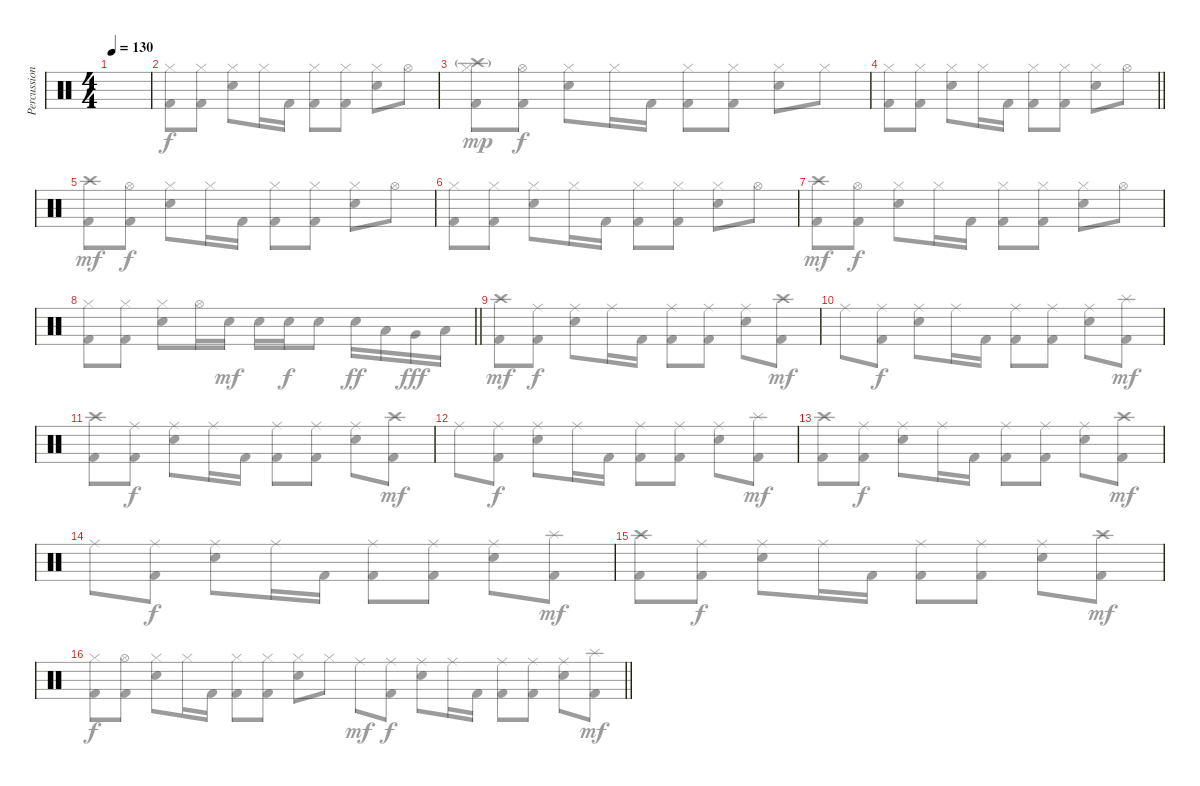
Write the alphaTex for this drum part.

\track ("Percussion" "Percussion") {instrument percussion}
\staff {score}
\articulation defaults
\voice
\ts (4 4)
\tempo 130
\clef neutral
\ks c
|
|
|
\barLineRight lightlight
|
|
|
|
\barLineRight lightlight
|
|
|
|
|
|
|
|
\barLineRight lightlight
\voice
\clef neutral
\ks c
("Hi-Hat (closed)" "Kick (hit) 2").8{dy f} ("Hi-Hat (open)" "Kick (hit) 2").8 ("Hi-Hat (closed)" "Electric Snare (hit)").8 "Hi-Hat (closed)".16 "Kick (hit) 2".16 ("Hi-Hat (closed)" "Kick (hit) 2").8 ("Hi-Hat (closed)" "Kick (hit) 2").8 ("Hi-Hat (closed)" "Electric Snare (hit)").8 "Hi-Hat (closed)".8 |
("Hi-Hat (closed)" "Kick (hit) 2").8 ("Hi-Hat (closed)" "Kick (hit) 2").8 ("Hi-Hat (closed)" "Electric Snare (hit)").8 "Hi-Hat (closed)".16 "Kick (hit) 2".16 ("Hi-Hat (closed)" "Kick (hit) 2").8 ("Hi-Hat (closed)" "Kick (hit) 2").8 ("Hi-Hat (closed)" "Electric Snare (hit)").8 "Hi-Hat (open)".8 |
("Crash high (hit)"{g} "Hi-Hat (closed)" "Kick (hit) 2").8{dy mp} ("Hi-Hat (open)" "Kick (hit) 2").8{dy f} ("Hi-Hat (closed)" "Electric Snare (hit)").8 "Hi-Hat (closed)".16 "Kick (hit) 2".16 ("Hi-Hat (closed)" "Kick (hit) 2").8 ("Hi-Hat (closed)" "Kick (hit) 2").8 ("Hi-Hat (closed)" "Electric Snare (hit)").8 "Hi-Hat (closed)".8 |
\barLineRight lightlight
("Hi-Hat (closed)" "Kick (hit) 2").8 ("Hi-Hat (closed)" "Kick (hit) 2").8 ("Hi-Hat (closed)" "Electric Snare (hit)").8 "Hi-Hat (closed)".16 "Kick (hit) 2".16 ("Hi-Hat (closed)" "Kick (hit) 2").8 ("Hi-Hat (closed)" "Kick (hit) 2").8 ("Hi-Hat (closed)" "Electric Snare (hit)").8 "Hi-Hat (open)".8 |
("Crash high (hit)" "Kick (hit) 2").8{dy mf} ("Hi-Hat (open)" "Kick (hit) 2").8{dy f} ("Hi-Hat (closed)" "Electric Snare (hit)").8 "Hi-Hat (closed)".16 "Kick (hit) 2".16 ("Hi-Hat (closed)" "Kick (hit) 2").8 ("Hi-Hat (closed)" "Kick (hit) 2").8 ("Hi-Hat (closed)" "Electric Snare (hit)").8 "Hi-Hat (open)".8 |
("Hi-Hat (closed)" "Kick (hit) 2").8 ("Hi-Hat (closed)" "Kick (hit) 2").8 ("Hi-Hat (closed)" "Electric Snare (hit)").8 "Hi-Hat (closed)".16 "Kick (hit) 2".16 ("Hi-Hat (closed)" "Kick (hit) 2").8 ("Hi-Hat (closed)" "Kick (hit) 2").8 ("Hi-Hat (closed)" "Electric Snare (hit)").8 "Hi-Hat (open)".8 |
("Crash high (hit)" "Kick (hit) 2").8{dy mf} ("Hi-Hat (open)" "Kick (hit) 2").8{dy f} ("Hi-Hat (closed)" "Electric Snare (hit)").8 "Hi-Hat (closed)".16 "Kick (hit) 2".16 ("Hi-Hat (closed)" "Kick (hit) 2").8 ("Hi-Hat (closed)" "Kick (hit) 2").8 ("Hi-Hat (closed)" "Electric Snare (hit)").8 "Hi-Hat (open)".8 |
\barLineRight lightlight
("Hi-Hat (closed)" "Kick (hit) 2").8 ("Hi-Hat (closed)" "Kick (hit) 2").8 ("Hi-Hat (closed)" "Electric Snare (hit)").8 "Hi-Hat (open)".16 "Electric Snare (hit)".16{dy mf} "Electric Snare (hit)".16 "Electric Snare (hit)".16{dy f} "Electric Snare (hit)".8 "Electric Snare (hit)".16{dy ff} "Low Tom (hit)".16 "Very Low Tom (hit)".16{dy fff} "Low Floor Tom (hit)".16 |
("Crash high (hit)" "Kick (hit) 2").8{dy mf} ("Ride (middle)" "Kick (hit) 2").8{dy f} ("Ride (middle)" "Electric Snare (hit)").8 "Ride (middle)".16 "Kick (hit) 2".16 ("Ride (middle)" "Kick (hit) 2").8 ("Ride (middle)" "Kick (hit) 2").8 ("Ride (middle)" "Electric Snare (hit)").8 ("Crash high (hit)" "Kick (hit) 2").8{dy mf} |
"Ride (middle)".8 ("Ride (middle)" "Kick (hit) 2").8{dy f} ("Ride (middle)" "Electric Snare (hit)").8 "Ride (middle)".16 "Kick (hit) 2".16 ("Ride (middle)" "Kick (hit) 2").8 ("Ride (middle)" "Kick (hit) 2").8 ("Ride (middle)" "Electric Snare (hit)").8 ("Splash (hit)" "Kick (hit) 2").8{dy mf} |
("Crash high (hit)" "Kick (hit) 2").8 ("Ride (middle)" "Kick (hit) 2").8{dy f} ("Ride (middle)" "Electric Snare (hit)").8 "Ride (middle)".16 "Kick (hit) 2".16 ("Ride (middle)" "Kick (hit) 2").8 ("Ride (middle)" "Kick (hit) 2").8 ("Ride (middle)" "Electric Snare (hit)").8 ("Crash high (hit)" "Kick (hit) 2").8{dy mf} |
"Ride (middle)".8 ("Ride (middle)" "Kick (hit) 2").8{dy f} ("Ride (middle)" "Electric Snare (hit)").8 "Ride (middle)".16 "Kick (hit) 2".16 ("Ride (middle)" "Kick (hit) 2").8 ("Ride (middle)" "Kick (hit) 2").8 ("Ride (middle)" "Electric Snare (hit)").8 ("Splash (hit)" "Kick (hit) 2").8{dy mf} |
("Crash high (hit)" "Kick (hit) 2").8 ("Ride (middle)" "Kick (hit) 2").8{dy f} ("Ride (middle)" "Electric Snare (hit)").8 "Ride (middle)".16 "Kick (hit) 2".16 ("Ride (middle)" "Kick (hit) 2").8 ("Ride (middle)" "Kick (hit) 2").8 ("Ride (middle)" "Electric Snare (hit)").8 ("Crash high (hit)" "Kick (hit) 2").8{dy mf} |
"Ride (middle)".8 ("Ride (middle)" "Kick (hit) 2").8{dy f} ("Ride (middle)" "Electric Snare (hit)").8 "Ride (middle)".16 "Kick (hit) 2".16 ("Ride (middle)" "Kick (hit) 2").8 ("Ride (middle)" "Kick (hit) 2").8 ("Ride (middle)" "Electric Snare (hit)").8 ("Splash (hit)" "Kick (hit) 2").8{dy mf} |
("Crash high (hit)" "Kick (hit) 2").8 ("Ride (middle)" "Kick (hit) 2").8{dy f} ("Ride (middle)" "Electric Snare (hit)").8 "Ride (middle)".16 "Kick (hit) 2".16 ("Ride (middle)" "Kick (hit) 2").8 ("Ride (middle)" "Kick (hit) 2").8 ("Ride (middle)" "Electric Snare (hit)").8 ("Crash high (hit)" "Kick (hit) 2").8{dy mf} |
\barLineRight lightlight "Ride (middle)".8
("Ride (middle)" "Kick (hit) 2").8{dy f} ("Ride (middle)" "Electric Snare (hit)").8 "Ride (middle)".16 "Kick (hit) 2".16 ("Ride (middle)" "Kick (hit) 2").8 ("Ride (middle)" "Kick (hit) 2").8 ("Ride (middle)" "Electric Snare (hit)").8 ("Splash (hit)" "Kick (hit) 2").8{dy mf}
